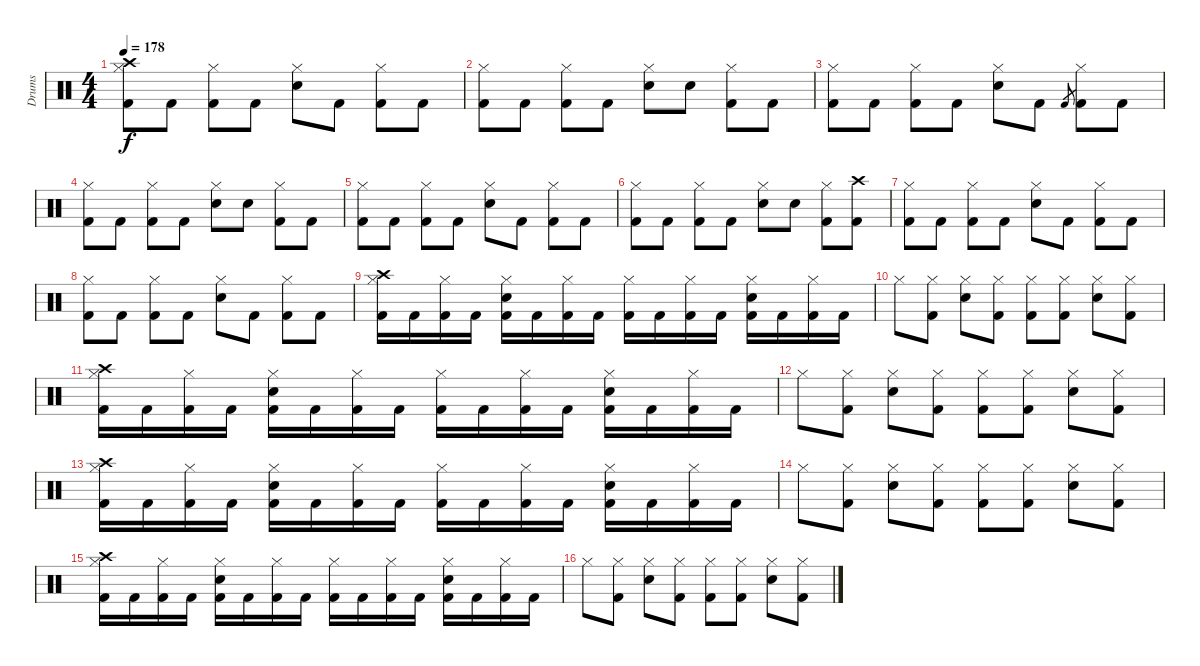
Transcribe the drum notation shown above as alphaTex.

\track ("Drums" "Drums") {instrument percussion}
\staff {score}
\articulation defaults
\ts (4 4)
\tempo 178
\clef neutral
\ks c
("Kick (hit) 2" "Hi-Hat (closed)" "Crash high (hit)").8{dy f} "Kick (hit) 2".8 ("Kick (hit) 2" "Hi-Hat (closed)").8 "Kick (hit) 2".8 ("Snare (hit) 2" "Hi-Hat (closed)").8 "Kick (hit) 2".8 ("Kick (hit) 2" "Hi-Hat (closed)").8 "Kick (hit) 2".8 |
("Kick (hit) 2" "Hi-Hat (closed)").8 "Kick (hit) 2".8 ("Kick (hit) 2" "Hi-Hat (closed)").8 "Kick (hit) 2".8 ("Snare (hit) 2" "Hi-Hat (closed)").8 "Snare (hit) 2".8 ("Kick (hit) 2" "Hi-Hat (closed)").8 "Kick (hit) 2".8 |
("Kick (hit) 2" "Hi-Hat (closed)").8 "Kick (hit) 2".8 ("Kick (hit) 2" "Hi-Hat (closed)").8 "Kick (hit) 2".8 ("Snare (hit) 2" "Hi-Hat (closed)").8 "Kick (hit) 2".8 "Kick (hit) 2".8{gr} ("Kick (hit) 2" "Hi-Hat (closed)").8 "Kick (hit) 2".8 |
("Kick (hit) 2" "Hi-Hat (closed)").8 "Kick (hit) 2".8 ("Kick (hit) 2" "Hi-Hat (closed)").8 "Kick (hit) 2".8 ("Snare (hit) 2" "Hi-Hat (closed)").8 "Snare (hit) 2".8 ("Kick (hit) 2" "Hi-Hat (closed)").8 "Kick (hit) 2".8 |
("Kick (hit) 2" "Hi-Hat (closed)").8 "Kick (hit) 2".8 ("Kick (hit) 2" "Hi-Hat (closed)").8 "Kick (hit) 2".8 ("Snare (hit) 2" "Hi-Hat (closed)").8 "Kick (hit) 2".8 ("Kick (hit) 2" "Hi-Hat (closed)").8 "Kick (hit) 2".8 |
("Kick (hit) 2" "Hi-Hat (closed)").8 "Kick (hit) 2".8 ("Kick (hit) 2" "Hi-Hat (closed)").8 "Kick (hit) 2".8 ("Snare (hit) 2" "Hi-Hat (closed)").8 "Snare (hit) 2".8 ("Kick (hit) 2" "Hi-Hat (closed)").8 ("Kick (hit) 2" "Crash high (hit)").8 |
("Kick (hit) 2" "Hi-Hat (closed)").8 "Kick (hit) 2".8 ("Kick (hit) 2" "Hi-Hat (closed)").8 "Kick (hit) 2".8 ("Snare (hit) 2" "Hi-Hat (closed)").8 "Kick (hit) 2".8 ("Kick (hit) 2" "Hi-Hat (closed)").8 "Kick (hit) 2".8 |
("Kick (hit) 2" "Hi-Hat (closed)").8 "Kick (hit) 2".8 ("Kick (hit) 2" "Hi-Hat (closed)").8 "Kick (hit) 2".8 ("Snare (hit) 2" "Hi-Hat (closed)").8 "Kick (hit) 2".8 ("Kick (hit) 2" "Hi-Hat (closed)").8 "Kick (hit) 2".8 |
("Kick (hit) 2" "Hi-Hat (closed)" "Crash high (hit)").16 "Kick (hit) 2".16 ("Kick (hit) 2" "Hi-Hat (closed)").16 "Kick (hit) 2".16 ("Kick (hit) 2" "Snare (hit) 2" "Hi-Hat (closed)").16 "Kick (hit) 2".16 ("Kick (hit) 2" "Hi-Hat (closed)").16 "Kick (hit) 2".16 ("Kick (hit) 2" "Hi-Hat (closed)").16 "Kick (hit) 2".16 ("Kick (hit) 2" "Hi-Hat (closed)").16 "Kick (hit) 2".16 ("Kick (hit) 2" "Snare (hit) 2" "Hi-Hat (closed)").16 "Kick (hit) 2".16 ("Kick (hit) 2" "Hi-Hat (closed)").16 "Kick (hit) 2".16 |
"Hi-Hat (closed)".8 ("Kick (hit) 2" "Hi-Hat (closed)").8 ("Snare (hit) 2" "Hi-Hat (closed)").8 ("Kick (hit) 2" "Hi-Hat (closed)").8 ("Kick (hit) 2" "Hi-Hat (closed)").8 ("Kick (hit) 2" "Hi-Hat (closed)").8 ("Snare (hit) 2" "Hi-Hat (closed)").8 ("Kick (hit) 2" "Hi-Hat (closed)").8 |
("Kick (hit) 2" "Hi-Hat (closed)" "Crash high (hit)").16 "Kick (hit) 2".16 ("Kick (hit) 2" "Hi-Hat (closed)").16 "Kick (hit) 2".16 ("Kick (hit) 2" "Snare (hit) 2" "Hi-Hat (closed)").16 "Kick (hit) 2".16 ("Kick (hit) 2" "Hi-Hat (closed)").16 "Kick (hit) 2".16 ("Kick (hit) 2" "Hi-Hat (closed)").16 "Kick (hit) 2".16 ("Kick (hit) 2" "Hi-Hat (closed)").16 "Kick (hit) 2".16 ("Kick (hit) 2" "Snare (hit) 2" "Hi-Hat (closed)").16 "Kick (hit) 2".16 ("Kick (hit) 2" "Hi-Hat (closed)").16 "Kick (hit) 2".16 |
"Hi-Hat (closed)".8 ("Kick (hit) 2" "Hi-Hat (closed)").8 ("Snare (hit) 2" "Hi-Hat (closed)").8 ("Kick (hit) 2" "Hi-Hat (closed)").8 ("Kick (hit) 2" "Hi-Hat (closed)").8 ("Kick (hit) 2" "Hi-Hat (closed)").8 ("Snare (hit) 2" "Hi-Hat (closed)").8 ("Kick (hit) 2" "Hi-Hat (closed)").8 |
("Kick (hit) 2" "Hi-Hat (closed)" "Crash high (hit)").16 "Kick (hit) 2".16 ("Kick (hit) 2" "Hi-Hat (closed)").16 "Kick (hit) 2".16 ("Kick (hit) 2" "Snare (hit) 2" "Hi-Hat (closed)").16 "Kick (hit) 2".16 ("Kick (hit) 2" "Hi-Hat (closed)").16 "Kick (hit) 2".16 ("Kick (hit) 2" "Hi-Hat (closed)").16 "Kick (hit) 2".16 ("Kick (hit) 2" "Hi-Hat (closed)").16 "Kick (hit) 2".16 ("Kick (hit) 2" "Snare (hit) 2" "Hi-Hat (closed)").16 "Kick (hit) 2".16 ("Kick (hit) 2" "Hi-Hat (closed)").16 "Kick (hit) 2".16 |
"Hi-Hat (closed)".8 ("Kick (hit) 2" "Hi-Hat (closed)").8 ("Snare (hit) 2" "Hi-Hat (closed)").8 ("Kick (hit) 2" "Hi-Hat (closed)").8 ("Kick (hit) 2" "Hi-Hat (closed)").8 ("Kick (hit) 2" "Hi-Hat (closed)").8 ("Snare (hit) 2" "Hi-Hat (closed)").8 ("Kick (hit) 2" "Hi-Hat (closed)").8 |
("Kick (hit) 2" "Hi-Hat (closed)" "Crash high (hit)").16 "Kick (hit) 2".16 ("Kick (hit) 2" "Hi-Hat (closed)").16 "Kick (hit) 2".16 ("Kick (hit) 2" "Snare (hit) 2" "Hi-Hat (closed)").16 "Kick (hit) 2".16 ("Kick (hit) 2" "Hi-Hat (closed)").16 "Kick (hit) 2".16 ("Kick (hit) 2" "Hi-Hat (closed)").16 "Kick (hit) 2".16 ("Kick (hit) 2" "Hi-Hat (closed)").16 "Kick (hit) 2".16 ("Kick (hit) 2" "Snare (hit) 2" "Hi-Hat (closed)").16 "Kick (hit) 2".16 ("Kick (hit) 2" "Hi-Hat (closed)").16 "Kick (hit) 2".16 |
"Hi-Hat (closed)".8 ("Kick (hit) 2" "Hi-Hat (closed)").8 ("Snare (hit) 2" "Hi-Hat (closed)").8 ("Kick (hit) 2" "Hi-Hat (closed)").8 ("Kick (hit) 2" "Hi-Hat (closed)").8 ("Kick (hit) 2" "Hi-Hat (closed)").8 ("Snare (hit) 2" "Hi-Hat (closed)").8 ("Kick (hit) 2" "Hi-Hat (closed)").8
